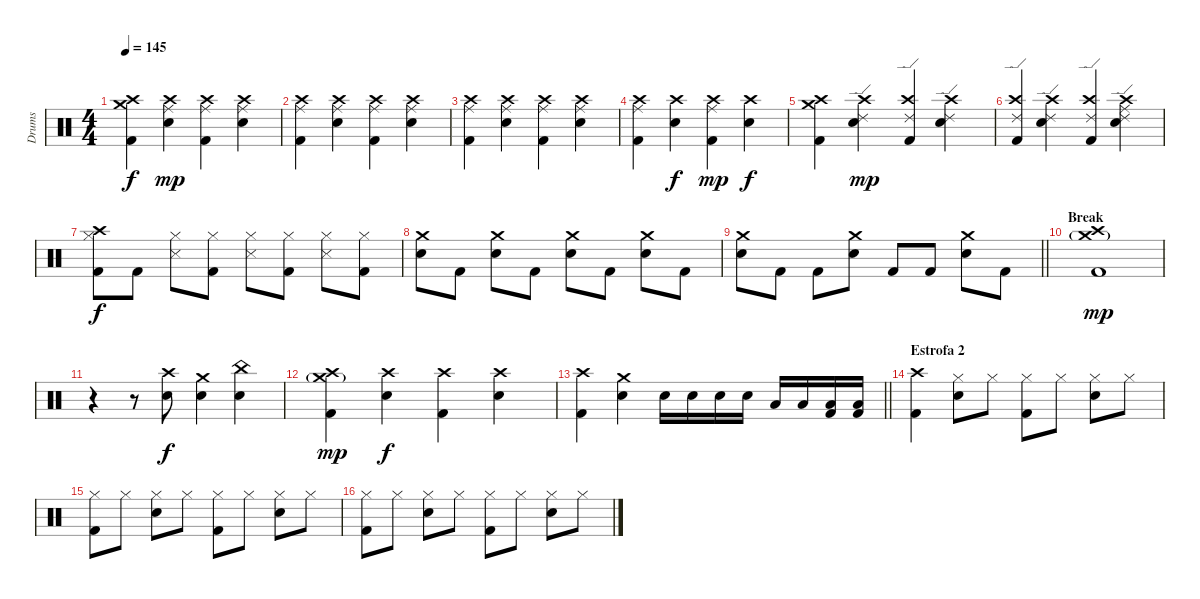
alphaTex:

\track ("Drums" "Drums") {instrument percussion}
\staff {score}
\articulation defaults
\ts (4 4)
\tempo 145
\clef neutral
\ks c
("Kick (hit) 2" "Crash medium (hit)" "Crash high (hit)").4{dy f} ("Crash high (hit)" "Electric Snare (hit)" "Ride (middle)").4{dy mp} ("Crash high (hit)" "Kick (hit) 2" "Ride (middle)").4 ("Crash high (hit)" "Electric Snare (hit)" "Ride (middle)").4 |
("Crash high (hit)" "Kick (hit) 2" "Ride (middle)").4 ("Crash high (hit)" "Electric Snare (hit)" "Ride (middle)").4 ("Crash high (hit)" "Kick (hit) 2" "Ride (middle)").4 ("Crash high (hit)" "Electric Snare (hit)" "Ride (middle)").4 |
("Crash high (hit)" "Kick (hit) 2" "Ride (middle)").4 ("Crash high (hit)" "Electric Snare (hit)" "Ride (middle)").4 ("Crash high (hit)" "Kick (hit) 2" "Ride (middle)").4 ("Crash high (hit)" "Electric Snare (hit)" "Ride (middle)").4 |
("Crash high (hit)" "Kick (hit) 2" "Ride (middle)").4 ("Crash high (hit)" "Electric Snare (hit)").4{dy f} ("Crash high (hit)" "Kick (hit) 2" "Ride (middle)").4{dy mp} ("Crash high (hit)" "Electric Snare (hit)").4{dy f} |
("Kick (hit) 2" "Crash medium (hit)" "Crash high (hit)").4 ("Crash high (hit)" "Electric Snare (hit)" "Ride (edge) 2").4{dy mp} ("Crash high (hit)" "Kick (hit) 2" "Ride (edge) 2").4 ("Crash high (hit)" "Electric Snare (hit)" "Ride (edge) 2").4 |
("Crash high (hit)" "Kick (hit) 2" "Ride (edge) 2").4 ("Crash high (hit)" "Electric Snare (hit)" "Ride (edge) 2").4 ("Crash high (hit)" "Kick (hit) 2" "Ride (edge) 2").4 ("Crash high (hit)" "Electric Snare (hit)" "Ride (edge) 2" "Ride (middle)").4 |
("Kick (hit) 2" "Crash high (hit)" "Hi-Hat (closed)").8{dy f} "Kick (hit) 2".8 ("Hi-Hat (closed)" "Snare (side stick) 3").8 ("Hi-Hat (closed)" "Kick (hit) 2").8 ("Hi-Hat (closed)" "Snare (side stick) 3").8 ("Hi-Hat (closed)" "Kick (hit) 2").8 ("Hi-Hat (closed)" "Snare (side stick) 3").8 ("Hi-Hat (closed)" "Kick (hit) 2").8 |
("Crash medium (hit)" "Electric Snare (hit)").8 "Kick (hit) 2".8 ("Crash medium (hit)" "Electric Snare (hit)").8 "Kick (hit) 2".8 ("Crash medium (hit)" "Electric Snare (hit)").8 "Kick (hit) 2".8 ("Crash medium (hit)" "Electric Snare (hit)").8 "Kick (hit) 2".8 |
\barLineRight lightlight
("Electric Snare (hit)" "Crash medium (hit)").8 "Kick (hit) 2".8 "Kick (hit) 2".8 ("Electric Snare (hit)" "Crash medium (hit)").8 "Kick (hit) 2".8 "Kick (hit) 2".8 ("Electric Snare (hit)" "Crash medium (hit)").8 "Kick (hit) 2".8 |
\section ("" "Break")
("Kick (hit) 2" "Crash high (hit)" "Crash medium (hit)"{g}).1{dy mp} |
r.4 r.8 ("Crash high (hit)" "Electric Snare (hit)").8{dy f} ("Crash medium (hit)" "Electric Snare (hit)").4 ("China (hit)" "Electric Snare (hit)").4 |
("Kick (hit) 2" "Crash medium (hit)"{g} "Crash high (hit)").4{dy mp} ("Crash high (hit)" "Electric Snare (hit)").4{dy f} ("Crash high (hit)" "Kick (hit) 2").4 ("Crash high (hit)" "Electric Snare (hit)").4 |
\barLineRight lightlight
("Crash high (hit)" "Kick (hit) 2").4 ("Crash medium (hit)" "Electric Snare (hit)").4 "Electric Snare (hit)".16 "Electric Snare (hit)".16 "Electric Snare (hit)".16 "Electric Snare (hit)".16 "Low Tom (hit)".16 "Low Tom (hit)".16 ("Low Floor Tom (hit)" "Kick (hit) 2").16 ("Low Floor Tom (hit)" "Kick (hit) 2").16 |
\section ("" "Estrofa 2")
("Crash high (hit)" "Kick (hit) 2").4 ("Electric Snare (hit)" "Hi-Hat (closed)").8 "Hi-Hat (closed)".8 ("Hi-Hat (closed)" "Kick (hit) 2").8 "Hi-Hat (closed)".8 ("Hi-Hat (closed)" "Electric Snare (hit)").8 "Hi-Hat (closed)".8 |
("Hi-Hat (closed)" "Kick (hit) 2").8 "Hi-Hat (closed)".8 ("Hi-Hat (closed)" "Electric Snare (hit)").8 "Hi-Hat (closed)".8 ("Hi-Hat (closed)" "Kick (hit) 2").8 "Hi-Hat (closed)".8 ("Hi-Hat (closed)" "Electric Snare (hit)").8 "Hi-Hat (closed)".8 |
("Hi-Hat (closed)" "Kick (hit) 2").8 "Hi-Hat (closed)".8 ("Hi-Hat (closed)" "Electric Snare (hit)").8 "Hi-Hat (closed)".8 ("Hi-Hat (closed)" "Kick (hit) 2").8 "Hi-Hat (closed)".8 ("Hi-Hat (closed)" "Electric Snare (hit)").8 "Hi-Hat (closed)".8
